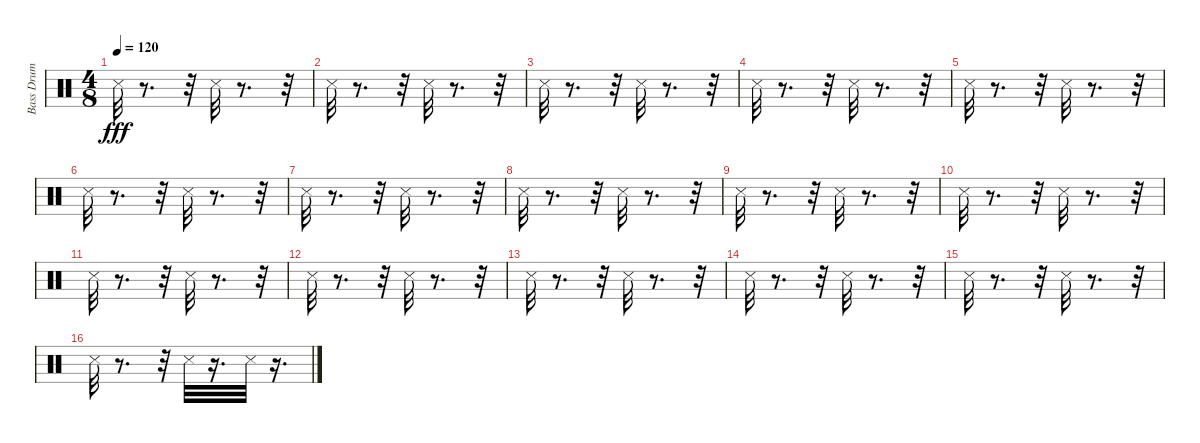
\track ("Bass Drum" "Bass Drum") {instrument percussion}
\staff {score}
\articulation defaults
\ts (4 8)
\tempo 120
\clef neutral
\ks c "Metronome (hit)".32{dy fff}
r.8{d} r.32 "Metronome (hit)".32 r.8{d} r.32 |
"Metronome (hit)".32 r.8{d} r.32 "Metronome (hit)".32 r.8{d} r.32 |
"Metronome (hit)".32 r.8{d} r.32 "Metronome (hit)".32 r.8{d} r.32 |
"Metronome (hit)".32 r.8{d} r.32 "Metronome (hit)".32 r.8{d} r.32 |
"Metronome (hit)".32 r.8{d} r.32 "Metronome (hit)".32 r.8{d} r.32 |
"Metronome (hit)".32 r.8{d} r.32 "Metronome (hit)".32 r.8{d} r.32 |
"Metronome (hit)".32 r.8{d} r.32 "Metronome (hit)".32 r.8{d} r.32 |
"Metronome (hit)".32 r.8{d} r.32 "Metronome (hit)".32 r.8{d} r.32 |
"Metronome (hit)".32 r.8{d} r.32 "Metronome (hit)".32 r.8{d} r.32 |
"Metronome (hit)".32 r.8{d} r.32 "Metronome (hit)".32 r.8{d} r.32 |
"Metronome (hit)".32 r.8{d} r.32 "Metronome (hit)".32 r.8{d} r.32 |
"Metronome (hit)".32 r.8{d} r.32 "Metronome (hit)".32 r.8{d} r.32 |
"Metronome (hit)".32 r.8{d} r.32 "Metronome (hit)".32 r.8{d} r.32 |
"Metronome (hit)".32 r.8{d} r.32 "Metronome (hit)".32 r.8{d} r.32 |
"Metronome (hit)".32 r.8{d} r.32 "Metronome (hit)".32 r.8{d} r.32 |
"Metronome (hit)".32 r.8{d} r.32 "Metronome (hit)".32 r.16{d} "Metronome (hit)".32 r.16{d}
